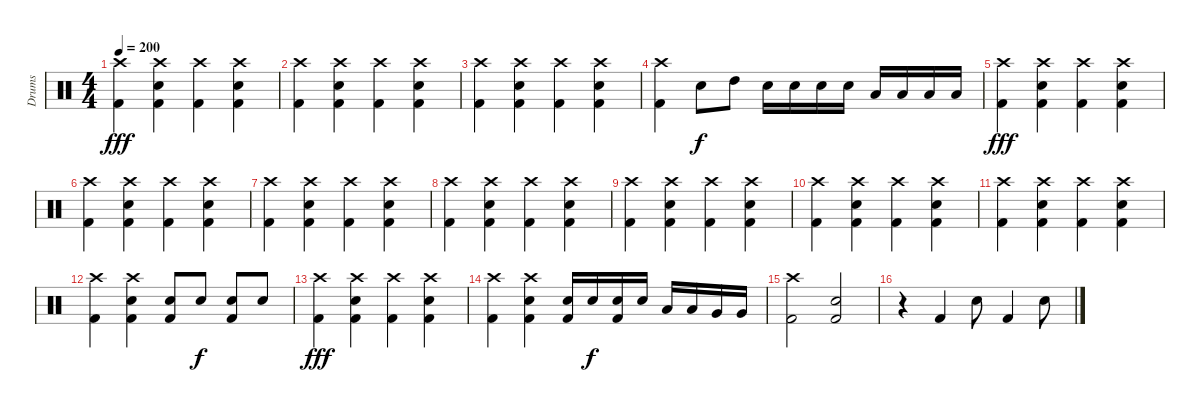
\track ("Drums" "Drums") {instrument percussion}
\staff {score}
\articulation defaults
\ts (4 4)
\tempo 200
\clef neutral
\ks c
("Crash high (hit)" "Kick (hit) 2").4{dy fff} ("Crash high (hit)" "Snare (hit) 2" "Kick (hit) 2").4 ("Crash high (hit)" "Kick (hit) 2").4 ("Crash high (hit)" "Snare (hit) 2" "Kick (hit) 2").4 |
("Crash high (hit)" "Kick (hit) 2").4 ("Crash high (hit)" "Snare (hit) 2" "Kick (hit) 2").4 ("Crash high (hit)" "Kick (hit) 2").4 ("Crash high (hit)" "Snare (hit) 2" "Kick (hit) 2").4 |
("Crash high (hit)" "Kick (hit) 2").4 ("Crash high (hit)" "Snare (hit) 2" "Kick (hit) 2").4 ("Crash high (hit)" "Kick (hit) 2").4 ("Crash high (hit)" "Snare (hit) 2" "Kick (hit) 2").4 |
("Crash high (hit)" "Kick (hit) 2").4 "Snare (hit) 2".8{dy f} "High Tom (hit)".8 "Electric Snare (hit)".16 "Electric Snare (hit)".16 "Electric Snare (hit)".16 "Electric Snare (hit)".16 "Low Tom (hit)".16 "Low Tom (hit)".16 "Low Tom (hit)".16 "Low Tom (hit)".16 |
("Crash high (hit)" "Kick (hit) 2").4{dy fff} ("Crash high (hit)" "Snare (hit) 2" "Kick (hit) 2").4 ("Crash high (hit)" "Kick (hit) 2").4 ("Crash high (hit)" "Snare (hit) 2" "Kick (hit) 2").4 |
("Crash high (hit)" "Kick (hit) 2").4 ("Crash high (hit)" "Snare (hit) 2" "Kick (hit) 2").4 ("Crash high (hit)" "Kick (hit) 2").4 ("Crash high (hit)" "Snare (hit) 2" "Kick (hit) 2").4 |
("Crash high (hit)" "Kick (hit) 2").4 ("Crash high (hit)" "Snare (hit) 2" "Kick (hit) 2").4 ("Crash high (hit)" "Kick (hit) 2").4 ("Crash high (hit)" "Snare (hit) 2" "Kick (hit) 2").4 |
("Crash high (hit)" "Kick (hit) 2").4 ("Crash high (hit)" "Snare (hit) 2" "Kick (hit) 2").4 ("Crash high (hit)" "Kick (hit) 2").4 ("Crash high (hit)" "Snare (hit) 2" "Kick (hit) 2").4 |
("Crash high (hit)" "Kick (hit) 2").4 ("Crash high (hit)" "Snare (hit) 2" "Kick (hit) 2").4 ("Crash high (hit)" "Kick (hit) 2").4 ("Crash high (hit)" "Snare (hit) 2" "Kick (hit) 2").4 |
("Crash high (hit)" "Kick (hit) 2").4 ("Crash high (hit)" "Snare (hit) 2" "Kick (hit) 2").4 ("Crash high (hit)" "Kick (hit) 2").4 ("Crash high (hit)" "Snare (hit) 2" "Kick (hit) 2").4 |
("Crash high (hit)" "Kick (hit) 2").4 ("Crash high (hit)" "Snare (hit) 2" "Kick (hit) 2").4 ("Crash high (hit)" "Kick (hit) 2").4 ("Crash high (hit)" "Snare (hit) 2" "Kick (hit) 2").4 |
("Crash high (hit)" "Kick (hit) 2").4 ("Crash high (hit)" "Snare (hit) 2" "Kick (hit) 2").4 ("Snare (hit) 2" "Kick (hit) 2").8 "Snare (hit) 2".8{dy f} ("Snare (hit) 2" "Kick (hit) 2").8 "Snare (hit) 2".8 |
("Crash high (hit)" "Kick (hit) 2").4{dy fff} ("Crash high (hit)" "Snare (hit) 2" "Kick (hit) 2").4 ("Crash high (hit)" "Kick (hit) 2").4 ("Crash high (hit)" "Snare (hit) 2" "Kick (hit) 2").4 |
("Crash high (hit)" "Kick (hit) 2").4 ("Crash high (hit)" "Snare (hit) 2" "Kick (hit) 2").4 ("Snare (hit) 2" "Kick (hit) 2").16 "Snare (hit) 2".16{dy f} ("Snare (hit) 2" "Kick (hit) 2").16 "Snare (hit) 2".16 "Low Tom (hit)".16 "Low Tom (hit)".16 "Very Low Tom (hit)".16 "Very Low Tom (hit)".16 |
("Crash high (hit)" "Kick (hit) 2").2 ("Snare (hit) 2" "Kick (hit) 2").2 |
r.4 "Kick (hit) 2".4 "Snare (hit) 2".8 "Kick (hit) 2".4 "Snare (hit) 2".8
